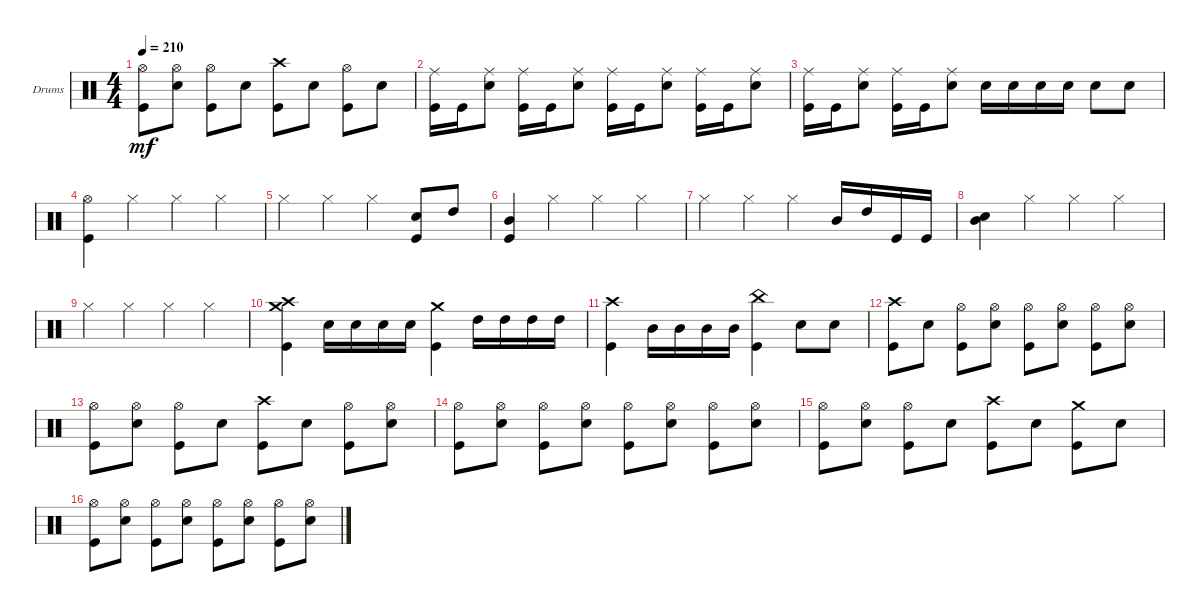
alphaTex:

\bracketExtendMode groupsimilarinstruments
\firstSystemTrackNameOrientation horizontal
\otherSystemsTrackNameOrientation horizontal
\track ("Drumkit" "Drums") {instrument percussion}
\staff {score}
\articulation defaults
\ts (4 4)
\tempo 210
\clef neutral
\ks c
("Hi-Hat (open)" "Kick (hit)").8{dy mf} ("Hi-Hat (open)" "Snare (hit) 2").8 ("Hi-Hat (open)" "Kick (hit)").8 "Snare (hit) 2".8 ("Kick (hit)" "Crash high (hit)").8 "Snare (hit) 2".8 ("Hi-Hat (open)" "Kick (hit)").8 "Snare (hit) 2".8 |
("Kick (hit)" "Ride (middle)").16 "Kick (hit)".16 ("Snare (hit) 2" "Ride (middle)").8 ("Kick (hit)" "Ride (middle)").16 "Kick (hit)".16 ("Snare (hit) 2" "Ride (middle)").8 ("Kick (hit)" "Ride (middle)").16 "Kick (hit)".16 ("Snare (hit) 2" "Ride (middle)").8 ("Kick (hit)" "Ride (middle)").16 "Kick (hit)".16 ("Snare (hit) 2" "Ride (middle)").8 |
("Kick (hit)" "Ride (middle)").16 "Kick (hit)".16 ("Snare (hit) 2" "Ride (middle)").8 ("Kick (hit)" "Ride (middle)").16 "Kick (hit)".16 ("Snare (hit) 2" "Ride (middle)").8 "Snare (hit) 2".16 "Snare (hit) 2".16 "Snare (hit) 2".16 "Snare (hit) 2".16 "Snare (hit) 2".8 "Snare (hit) 2".8 |
("Kick (hit)" "Hi-Hat (open)").4 "Hi-Hat (closed)".4 "Hi-Hat (closed)".4 "Hi-Hat (closed)".4 |
"Hi-Hat (closed)".4 "Hi-Hat (closed)".4 "Hi-Hat (closed)".4 ("Snare (hit) 2" "Kick (hit)").8 "High Tom (hit)".8 |
("Kick (hit)" "Mid Tom (hit)").4 "Hi-Hat (closed)".4 "Hi-Hat (closed)".4 "Hi-Hat (closed)".4 |
"Hi-Hat (closed)".4 "Hi-Hat (closed)".4 "Hi-Hat (closed)".4 "Mid Tom (hit)".16 "High Tom (hit)".16 "Kick (hit)".16 "Kick (hit)".16 |
("Snare (hit) 2" "Mid Tom (hit)").4 "Hi-Hat (closed)".4 "Hi-Hat (closed)".4 "Hi-Hat (closed)".4 |
"Hi-Hat (closed)".4 "Hi-Hat (closed)".4 "Hi-Hat (closed)".4 "Hi-Hat (closed)".4 |
("Kick (hit)" "Crash medium (hit)" "Crash high (hit)").4 "Snare (hit) 2".16 "Snare (hit) 2".16 "Snare (hit) 2".16 "Snare (hit) 2".16 ("Kick (hit)" "Crash medium (hit)").4 "High Tom (hit)".16 "High Tom (hit)".16 "High Tom (hit)".16 "High Tom (hit)".16 |
("Kick (hit)" "Crash high (hit)").4 "Mid Tom (hit)".16 "Mid Tom (hit)".16 "Mid Tom (hit)".16 "Mid Tom (hit)".16 ("Kick (hit)" "China (hit)").4 "Snare (hit) 2".8 "Snare (hit) 2".8 |
("Kick (hit)" "Crash high (hit)").8 "Snare (hit) 2".8 ("Hi-Hat (open)" "Kick (hit)").8 ("Hi-Hat (open)" "Snare (hit) 2").8 ("Hi-Hat (open)" "Kick (hit)").8 ("Hi-Hat (open)" "Snare (hit) 2").8 ("Hi-Hat (open)" "Kick (hit)").8 ("Hi-Hat (open)" "Snare (hit) 2").8 |
("Hi-Hat (open)" "Kick (hit)").8 ("Hi-Hat (open)" "Snare (hit) 2").8 ("Hi-Hat (open)" "Kick (hit)").8 "Snare (hit) 2".8 ("Kick (hit)" "Crash high (hit)").8 "Snare (hit) 2".8 ("Hi-Hat (open)" "Kick (hit)").8 ("Hi-Hat (open)" "Snare (hit) 2").8 |
("Hi-Hat (open)" "Kick (hit)").8 ("Hi-Hat (open)" "Snare (hit) 2").8 ("Hi-Hat (open)" "Kick (hit)").8 ("Hi-Hat (open)" "Snare (hit) 2").8 ("Hi-Hat (open)" "Kick (hit)").8 ("Hi-Hat (open)" "Snare (hit) 2").8 ("Hi-Hat (open)" "Kick (hit)").8 ("Hi-Hat (open)" "Snare (hit) 2").8 |
("Hi-Hat (open)" "Kick (hit)").8 ("Hi-Hat (open)" "Snare (hit) 2").8 ("Hi-Hat (open)" "Kick (hit)").8 "Snare (hit) 2".8 ("Kick (hit)" "Crash high (hit)").8 "Snare (hit) 2".8 ("Kick (hit)" "Crash medium (hit)").8 "Snare (hit) 2".8 |
("Hi-Hat (open)" "Kick (hit)").8 ("Hi-Hat (open)" "Snare (hit) 2").8 ("Hi-Hat (open)" "Kick (hit)").8 ("Hi-Hat (open)" "Snare (hit) 2").8 ("Hi-Hat (open)" "Kick (hit)").8 ("Hi-Hat (open)" "Snare (hit) 2").8 ("Hi-Hat (open)" "Kick (hit)").8 ("Hi-Hat (open)" "Snare (hit) 2").8
